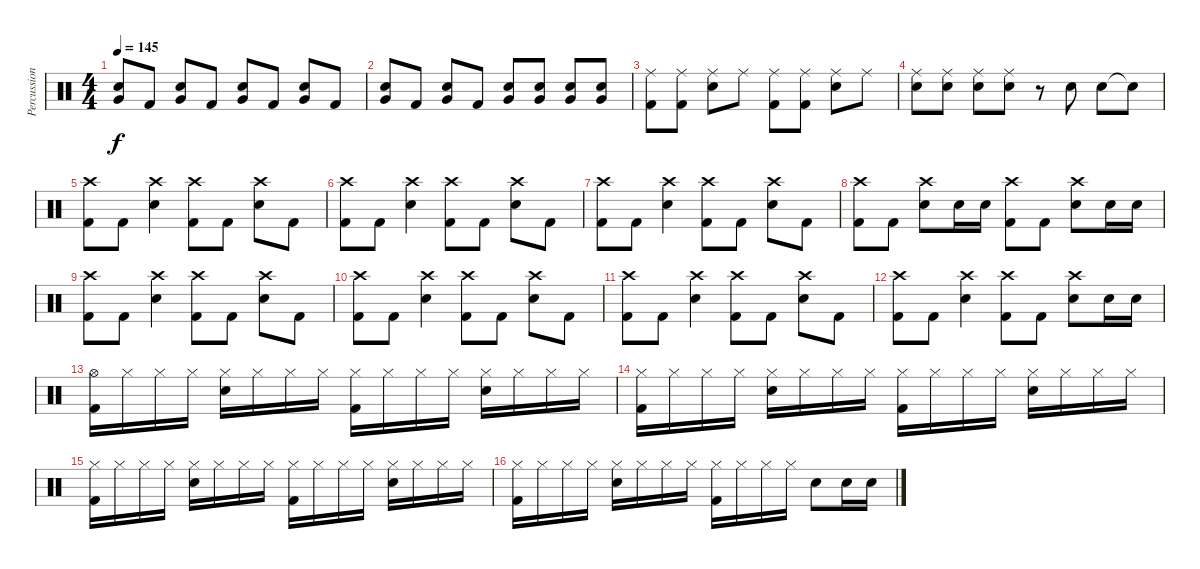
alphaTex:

\track ("Percussion" "Percussion") {instrument percussion}
\staff {score}
\articulation defaults
\ts (4 4)
\tempo 145
\clef neutral
\ks c
("Electric Snare (hit)" "Very Low Tom (hit)").8{dy f} "Kick (hit) 2".8 ("Electric Snare (hit)" "Very Low Tom (hit)").8 "Kick (hit) 2".8 ("Electric Snare (hit)" "Very Low Tom (hit)").8 "Kick (hit) 2".8 ("Electric Snare (hit)" "Very Low Tom (hit)").8 "Kick (hit) 2".8 |
("Electric Snare (hit)" "Very Low Tom (hit)").8 "Kick (hit) 2".8 ("Electric Snare (hit)" "Very Low Tom (hit)").8 "Kick (hit) 2".8 ("Electric Snare (hit)" "Very Low Tom (hit)").8 ("Electric Snare (hit)" "Very Low Tom (hit)").8 ("Electric Snare (hit)" "Very Low Tom (hit)").8 ("Electric Snare (hit)" "Very Low Tom (hit)").8 |
("Ride (middle)" "Kick (hit) 2").8 ("Ride (middle)" "Kick (hit) 2").8 ("Ride (middle)" "Electric Snare (hit)").8 "Ride (middle)".8 ("Ride (middle)" "Kick (hit) 2").8 ("Ride (middle)" "Kick (hit) 2").8 ("Ride (middle)" "Electric Snare (hit)").8 "Ride (middle)".8 |
("Ride (middle)" "Electric Snare (hit)").8 ("Ride (middle)" "Electric Snare (hit)").8 ("Ride (middle)" "Electric Snare (hit)").8 ("Ride (middle)" "Electric Snare (hit)").8 r.8 "Electric Snare (hit)".8 "Electric Snare (hit)".8 "Snare (hit)"{t}.8 |
("Crash high (hit)" "Kick (hit) 2").8 "Kick (hit) 2".8 ("Crash high (hit)" "Electric Snare (hit)").4 ("Crash high (hit)" "Kick (hit) 2").8 "Kick (hit) 2".8 ("Crash high (hit)" "Electric Snare (hit)").8 "Kick (hit) 2".8 |
("Crash high (hit)" "Kick (hit) 2").8 "Kick (hit) 2".8 ("Crash high (hit)" "Electric Snare (hit)").4 ("Crash high (hit)" "Kick (hit) 2").8 "Kick (hit) 2".8 ("Crash high (hit)" "Electric Snare (hit)").8 "Kick (hit) 2".8 |
("Crash high (hit)" "Kick (hit) 2").8 "Kick (hit) 2".8 ("Crash high (hit)" "Electric Snare (hit)").4 ("Crash high (hit)" "Kick (hit) 2").8 "Kick (hit) 2".8 ("Crash high (hit)" "Electric Snare (hit)").8 "Kick (hit) 2".8 |
("Crash high (hit)" "Kick (hit) 2").8 "Kick (hit) 2".8 ("Crash high (hit)" "Electric Snare (hit)").8 "Electric Snare (hit)".16 "Electric Snare (hit)".16 ("Crash high (hit)" "Kick (hit) 2").8 "Kick (hit) 2".8 ("Crash high (hit)" "Electric Snare (hit)").8 "Electric Snare (hit)".16 "Electric Snare (hit)".16 |
("Crash high (hit)" "Kick (hit) 2").8 "Kick (hit) 2".8 ("Crash high (hit)" "Electric Snare (hit)").4 ("Crash high (hit)" "Kick (hit) 2").8 "Kick (hit) 2".8 ("Crash high (hit)" "Electric Snare (hit)").8 "Kick (hit) 2".8 |
("Crash high (hit)" "Kick (hit) 2").8 "Kick (hit) 2".8 ("Crash high (hit)" "Electric Snare (hit)").4 ("Crash high (hit)" "Kick (hit) 2").8 "Kick (hit) 2".8 ("Crash high (hit)" "Electric Snare (hit)").8 "Kick (hit) 2".8 |
("Crash high (hit)" "Kick (hit) 2").8 "Kick (hit) 2".8 ("Crash high (hit)" "Electric Snare (hit)").4 ("Crash high (hit)" "Kick (hit) 2").8 "Kick (hit) 2".8 ("Crash high (hit)" "Electric Snare (hit)").8 "Kick (hit) 2".8 |
("Crash high (hit)" "Kick (hit) 2").8 "Kick (hit) 2".8 ("Crash high (hit)" "Electric Snare (hit)").4 ("Crash high (hit)" "Kick (hit) 2").8 "Kick (hit) 2".8 ("Crash high (hit)" "Electric Snare (hit)").8 "Electric Snare (hit)".16 "Electric Snare (hit)".16 |
("Hi-Hat (open)" "Kick (hit) 2").16 "Hi-Hat (closed)".16 "Hi-Hat (closed)".16 "Hi-Hat (closed)".16 ("Hi-Hat (closed)" "Electric Snare (hit)").16 "Hi-Hat (closed)".16 "Hi-Hat (closed)".16 "Hi-Hat (closed)".16 ("Hi-Hat (closed)" "Kick (hit) 2").16 "Hi-Hat (closed)".16 "Hi-Hat (closed)".16 "Hi-Hat (closed)".16 ("Hi-Hat (closed)" "Electric Snare (hit)").16 "Hi-Hat (closed)".16 "Hi-Hat (closed)".16 "Hi-Hat (closed)".16 |
("Hi-Hat (closed)" "Kick (hit) 2").16 "Hi-Hat (closed)".16 "Hi-Hat (closed)".16 "Hi-Hat (closed)".16 ("Hi-Hat (closed)" "Electric Snare (hit)").16 "Hi-Hat (closed)".16 "Hi-Hat (closed)".16 "Hi-Hat (closed)".16 ("Hi-Hat (closed)" "Kick (hit) 2").16 "Hi-Hat (closed)".16 "Hi-Hat (closed)".16 "Hi-Hat (closed)".16 ("Hi-Hat (closed)" "Electric Snare (hit)").16 "Hi-Hat (closed)".16 "Hi-Hat (closed)".16 "Hi-Hat (closed)".16 |
("Hi-Hat (closed)" "Kick (hit) 2").16 "Hi-Hat (closed)".16 "Hi-Hat (closed)".16 "Hi-Hat (closed)".16 ("Hi-Hat (closed)" "Electric Snare (hit)").16 "Hi-Hat (closed)".16 "Hi-Hat (closed)".16 "Hi-Hat (closed)".16 ("Hi-Hat (closed)" "Kick (hit) 2").16 "Hi-Hat (closed)".16 "Hi-Hat (closed)".16 "Hi-Hat (closed)".16 ("Hi-Hat (closed)" "Electric Snare (hit)").16 "Hi-Hat (closed)".16 "Hi-Hat (closed)".16 "Hi-Hat (closed)".16 |
("Hi-Hat (closed)" "Kick (hit) 2").16 "Hi-Hat (closed)".16 "Hi-Hat (closed)".16 "Hi-Hat (closed)".16 ("Hi-Hat (closed)" "Electric Snare (hit)").16 "Hi-Hat (closed)".16 "Hi-Hat (closed)".16 "Hi-Hat (closed)".16 ("Hi-Hat (closed)" "Kick (hit) 2").16 "Hi-Hat (closed)".16 "Hi-Hat (closed)".16 "Hi-Hat (closed)".16 "Electric Snare (hit)".8 "Electric Snare (hit)".16 "Electric Snare (hit)".16
